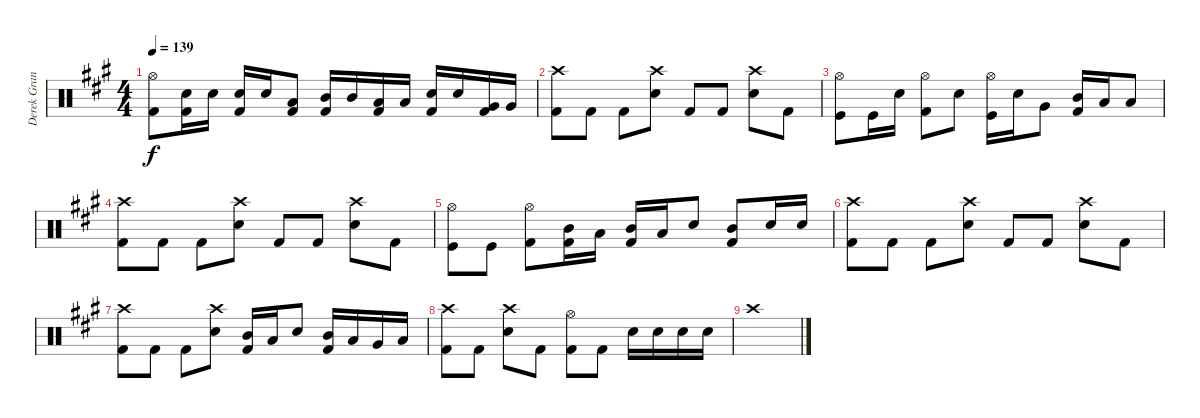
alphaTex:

\track ("Derek Grant - Drums" "Derek Gran") {instrument percussion}
\staff {score}
\articulation defaults
\ts (4 4)
\tempo 139
\clef neutral
\ks a
("Kick (hit) 2" "Hi-Hat (open)").8{dy f} ("Snare (hit) 2" "Kick (hit) 2").16 "Snare (hit) 2".16 ("Snare (hit) 2" "Kick (hit) 2").16 "Snare (hit) 2".16 ("Low Tom (hit)" "Kick (hit) 2").8 ("Mid Tom (hit)" "Kick (hit) 2").16 "Mid Tom (hit)".16 ("Low Tom (hit)" "Kick (hit) 2").16 "Low Tom (hit)".16 ("Snare (hit) 2" "Kick (hit) 2").16 "Snare (hit) 2".16 ("Very Low Tom (hit)" "Kick (hit) 2").16 "Very Low Tom (hit)".16 |
("Crash high (hit)" "Kick (hit) 2").8 "Kick (hit) 2".8 "Kick (hit) 2".8 ("Snare (hit) 2" "Crash high (hit)").8 "Kick (hit) 2".8 "Kick (hit) 2".8 ("Snare (hit) 2" "Crash high (hit)").8 "Kick (hit) 2".8 |
("Hi-Hat (open)" "Kick (hit)").8 "Kick (hit)".16 "Snare (hit) 2".16 ("Kick (hit) 2" "Hi-Hat (open)").8 "Snare (hit) 2".8 ("Hi-Hat (open)" "Kick (hit)").16 "Snare (hit) 2".16 "Very Low Tom (hit)".8 ("Kick (hit) 2" "Mid Tom (hit)").16 "Low Tom (hit)".16 "Low Tom (hit)".8 |
("Crash high (hit)" "Kick (hit) 2").8 "Kick (hit) 2".8 "Kick (hit) 2".8 ("Snare (hit) 2" "Crash high (hit)").8 "Kick (hit) 2".8 "Kick (hit) 2".8 ("Snare (hit) 2" "Crash high (hit)").8 "Kick (hit) 2".8 |
("Hi-Hat (open)" "Kick (hit)").8 "Kick (hit)".8 ("Kick (hit) 2" "Hi-Hat (open)").8 ("Kick (hit) 2" "Mid Tom (hit)").16 "Low Tom (hit)".16 ("Kick (hit) 2" "Mid Tom (hit)").16 "Low Tom (hit)".16 "Snare (hit) 2".8 ("Kick (hit) 2" "Mid Tom (hit)").8 "Snare (hit) 2".16 "Snare (hit) 2".16 |
("Crash high (hit)" "Kick (hit) 2").8 "Kick (hit) 2".8 "Kick (hit) 2".8 ("Snare (hit) 2" "Crash high (hit)").8 "Kick (hit) 2".8 "Kick (hit) 2".8 ("Snare (hit) 2" "Crash high (hit)").8 "Kick (hit) 2".8 |
("Crash high (hit)" "Kick (hit) 2").8 "Kick (hit) 2".8 "Kick (hit) 2".8 ("Snare (hit) 2" "Crash high (hit)").8 ("Kick (hit) 2" "Mid Tom (hit)").16 "Low Tom (hit)".16 "Snare (hit) 2".8 ("Kick (hit) 2" "Mid Tom (hit)").16 "Low Tom (hit)".16 "Very Low Tom (hit)".16 "Low Floor Tom (hit)".16 |
("Kick (hit) 2" "Crash high (hit)").8 "Kick (hit) 2".8 ("Snare (hit) 2" "Crash high (hit)").8 "Kick (hit) 2".8 ("Kick (hit) 2" "Hi-Hat (open)").8 "Kick (hit) 2".8 "Snare (hit) 2".16 "Snare (hit) 2".16 "Snare (hit) 2".16 "Snare (hit) 2".16 |
"Crash high (hit)".1
